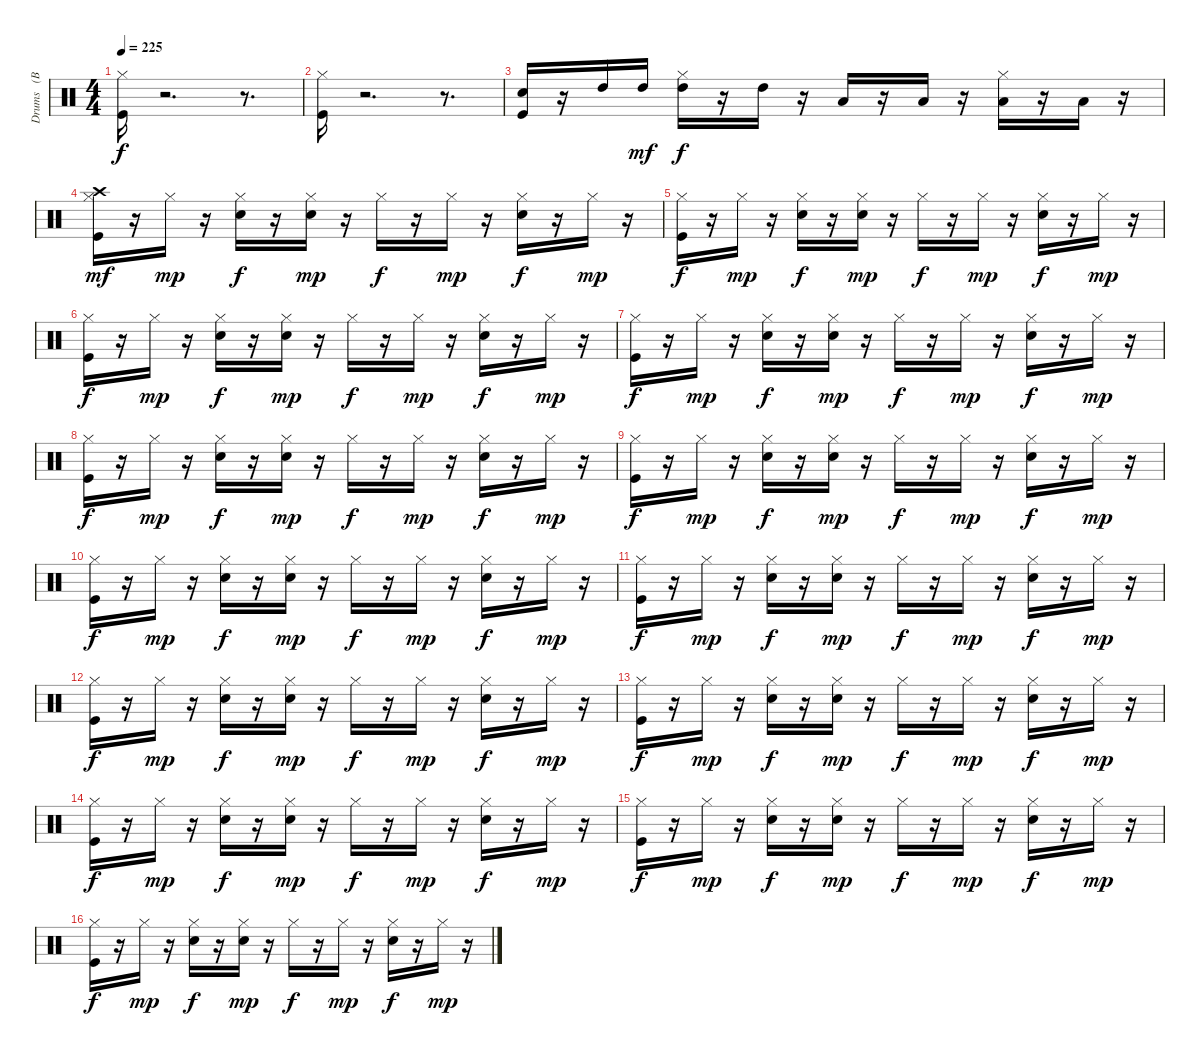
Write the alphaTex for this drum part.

\track ("Drums   (BB)" "Drums   (B") {instrument percussion}
\staff {score}
\articulation defaults
\ts (4 4)
\tempo 225
\clef neutral
\ks c
("Kick (hit)" "Hi-Hat (closed)").16{dy f} r.2{d} r.8{d} |
("Kick (hit)" "Hi-Hat (closed)").16 r.2{d} r.8{d} |
("Kick (hit)" "Snare (hit) 2").16 r.16 "High Tom (hit)".16 "High Tom (hit)".16{dy mf} ("Hi-Hat (closed)" "High Tom (hit)").16{dy f} r.16 "High Tom (hit)".16 r.16 "Low Tom (hit)".16 r.16 "Low Tom (hit)".16 r.16 ("Hi-Hat (closed)" "Low Floor Tom (hit)").16 r.16 "Low Floor Tom (hit)".16 r.16 |
("Kick (hit)" "Hi-Hat (closed)" "Crash high (hit)").16{dy mf} r.16 "Hi-Hat (closed)".16{dy mp} r.16 ("Snare (hit) 2" "Hi-Hat (closed)").16{dy f} r.16 ("Snare (hit) 2" "Hi-Hat (closed)").16{dy mp} r.16 "Hi-Hat (closed)".16{dy f} r.16 "Hi-Hat (closed)".16{dy mp} r.16 ("Snare (hit) 2" "Hi-Hat (closed)").16{dy f} r.16 "Hi-Hat (closed)".16{dy mp} r.16 |
("Kick (hit)" "Hi-Hat (closed)").16{dy f} r.16 "Hi-Hat (closed)".16{dy mp} r.16 ("Snare (hit) 2" "Hi-Hat (closed)").16{dy f} r.16 ("Snare (hit) 2" "Hi-Hat (closed)").16{dy mp} r.16 "Hi-Hat (closed)".16{dy f} r.16 "Hi-Hat (closed)".16{dy mp} r.16 ("Snare (hit) 2" "Hi-Hat (closed)").16{dy f} r.16 "Hi-Hat (closed)".16{dy mp} r.16 |
("Kick (hit)" "Hi-Hat (closed)").16{dy f} r.16 "Hi-Hat (closed)".16{dy mp} r.16 ("Snare (hit) 2" "Hi-Hat (closed)").16{dy f} r.16 ("Snare (hit) 2" "Hi-Hat (closed)").16{dy mp} r.16 "Hi-Hat (closed)".16{dy f} r.16 "Hi-Hat (closed)".16{dy mp} r.16 ("Snare (hit) 2" "Hi-Hat (closed)").16{dy f} r.16 "Hi-Hat (closed)".16{dy mp} r.16 |
("Kick (hit)" "Hi-Hat (closed)").16{dy f} r.16 "Hi-Hat (closed)".16{dy mp} r.16 ("Snare (hit) 2" "Hi-Hat (closed)").16{dy f} r.16 ("Snare (hit) 2" "Hi-Hat (closed)").16{dy mp} r.16 "Hi-Hat (closed)".16{dy f} r.16 "Hi-Hat (closed)".16{dy mp} r.16 ("Snare (hit) 2" "Hi-Hat (closed)").16{dy f} r.16 "Hi-Hat (closed)".16{dy mp} r.16 |
("Kick (hit)" "Hi-Hat (closed)").16{dy f} r.16 "Hi-Hat (closed)".16{dy mp} r.16 ("Snare (hit) 2" "Hi-Hat (closed)").16{dy f} r.16 ("Snare (hit) 2" "Hi-Hat (closed)").16{dy mp} r.16 "Hi-Hat (closed)".16{dy f} r.16 "Hi-Hat (closed)".16{dy mp} r.16 ("Snare (hit) 2" "Hi-Hat (closed)").16{dy f} r.16 "Hi-Hat (closed)".16{dy mp} r.16 |
("Kick (hit)" "Hi-Hat (closed)").16{dy f} r.16 "Hi-Hat (closed)".16{dy mp} r.16 ("Snare (hit) 2" "Hi-Hat (closed)").16{dy f} r.16 ("Snare (hit) 2" "Hi-Hat (closed)").16{dy mp} r.16 "Hi-Hat (closed)".16{dy f} r.16 "Hi-Hat (closed)".16{dy mp} r.16 ("Snare (hit) 2" "Hi-Hat (closed)").16{dy f} r.16 "Hi-Hat (closed)".16{dy mp} r.16 |
("Kick (hit)" "Hi-Hat (closed)").16{dy f} r.16 "Hi-Hat (closed)".16{dy mp} r.16 ("Snare (hit) 2" "Hi-Hat (closed)").16{dy f} r.16 ("Snare (hit) 2" "Hi-Hat (closed)").16{dy mp} r.16 "Hi-Hat (closed)".16{dy f} r.16 "Hi-Hat (closed)".16{dy mp} r.16 ("Snare (hit) 2" "Hi-Hat (closed)").16{dy f} r.16 "Hi-Hat (closed)".16{dy mp} r.16 |
("Kick (hit)" "Hi-Hat (closed)").16{dy f} r.16 "Hi-Hat (closed)".16{dy mp} r.16 ("Snare (hit) 2" "Hi-Hat (closed)").16{dy f} r.16 ("Snare (hit) 2" "Hi-Hat (closed)").16{dy mp} r.16 "Hi-Hat (closed)".16{dy f} r.16 "Hi-Hat (closed)".16{dy mp} r.16 ("Snare (hit) 2" "Hi-Hat (closed)").16{dy f} r.16 "Hi-Hat (closed)".16{dy mp} r.16 |
("Kick (hit)" "Hi-Hat (closed)").16{dy f} r.16 "Hi-Hat (closed)".16{dy mp} r.16 ("Snare (hit) 2" "Hi-Hat (closed)").16{dy f} r.16 ("Snare (hit) 2" "Hi-Hat (closed)").16{dy mp} r.16 "Hi-Hat (closed)".16{dy f} r.16 "Hi-Hat (closed)".16{dy mp} r.16 ("Snare (hit) 2" "Hi-Hat (closed)").16{dy f} r.16 "Hi-Hat (closed)".16{dy mp} r.16 |
("Kick (hit)" "Hi-Hat (closed)").16{dy f} r.16 "Hi-Hat (closed)".16{dy mp} r.16 ("Snare (hit) 2" "Hi-Hat (closed)").16{dy f} r.16 ("Snare (hit) 2" "Hi-Hat (closed)").16{dy mp} r.16 "Hi-Hat (closed)".16{dy f} r.16 "Hi-Hat (closed)".16{dy mp} r.16 ("Snare (hit) 2" "Hi-Hat (closed)").16{dy f} r.16 "Hi-Hat (closed)".16{dy mp} r.16 |
("Kick (hit)" "Hi-Hat (closed)").16{dy f} r.16 "Hi-Hat (closed)".16{dy mp} r.16 ("Snare (hit) 2" "Hi-Hat (closed)").16{dy f} r.16 ("Snare (hit) 2" "Hi-Hat (closed)").16{dy mp} r.16 "Hi-Hat (closed)".16{dy f} r.16 "Hi-Hat (closed)".16{dy mp} r.16 ("Snare (hit) 2" "Hi-Hat (closed)").16{dy f} r.16 "Hi-Hat (closed)".16{dy mp} r.16 |
("Kick (hit)" "Hi-Hat (closed)").16{dy f} r.16 "Hi-Hat (closed)".16{dy mp} r.16 ("Snare (hit) 2" "Hi-Hat (closed)").16{dy f} r.16 ("Snare (hit) 2" "Hi-Hat (closed)").16{dy mp} r.16 "Hi-Hat (closed)".16{dy f} r.16 "Hi-Hat (closed)".16{dy mp} r.16 ("Snare (hit) 2" "Hi-Hat (closed)").16{dy f} r.16 "Hi-Hat (closed)".16{dy mp} r.16 |
("Kick (hit)" "Hi-Hat (closed)").16{dy f} r.16 "Hi-Hat (closed)".16{dy mp} r.16 ("Snare (hit) 2" "Hi-Hat (closed)").16{dy f} r.16 ("Snare (hit) 2" "Hi-Hat (closed)").16{dy mp} r.16 "Hi-Hat (closed)".16{dy f} r.16 "Hi-Hat (closed)".16{dy mp} r.16 ("Snare (hit) 2" "Hi-Hat (closed)").16{dy f} r.16 "Hi-Hat (closed)".16{dy mp} r.16
